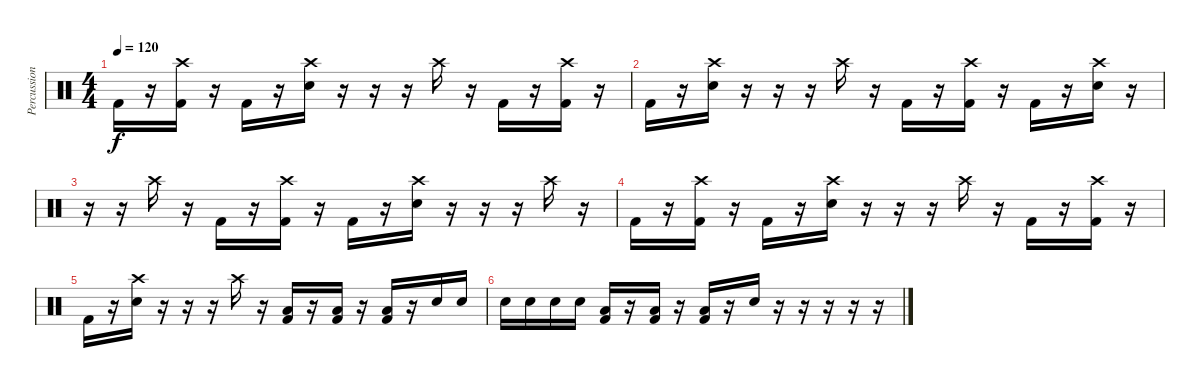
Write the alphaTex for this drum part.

\track ("Percussion" "Percussion") {instrument percussion}
\staff {score}
\articulation defaults
\ts (4 4)
\tempo 120
\clef neutral
\ks c "Kick (hit) 2".16{dy f}
r.16 ("Crash high (hit)" "Kick (hit) 2").16 r.16 "Kick (hit) 2".16 r.16 ("Crash high (hit)" "Electric Snare (hit)").16 r.16 r.16 r.16 "Crash high (hit)".16 r.16 "Kick (hit) 2".16 r.16 ("Crash high (hit)" "Kick (hit) 2").16 r.16 |
"Kick (hit) 2".16 r.16 ("Crash high (hit)" "Electric Snare (hit)").16 r.16 r.16 r.16 "Crash high (hit)".16 r.16 "Kick (hit) 2".16 r.16 ("Crash high (hit)" "Kick (hit) 2").16 r.16 "Kick (hit) 2".16 r.16 ("Crash high (hit)" "Electric Snare (hit)").16 r.16 |
r.16 r.16 "Crash high (hit)".16 r.16 "Kick (hit) 2".16 r.16 ("Crash high (hit)" "Kick (hit) 2").16 r.16 "Kick (hit) 2".16 r.16 ("Crash high (hit)" "Electric Snare (hit)").16 r.16 r.16 r.16 "Crash high (hit)".16 r.16 |
"Kick (hit) 2".16 r.16 ("Crash high (hit)" "Kick (hit) 2").16 r.16 "Kick (hit) 2".16 r.16 ("Crash high (hit)" "Electric Snare (hit)").16 r.16 r.16 r.16 "Crash high (hit)".16 r.16 "Kick (hit) 2".16 r.16 ("Crash high (hit)" "Kick (hit) 2").16 r.16 |
"Kick (hit) 2".16 r.16 ("Crash high (hit)" "Electric Snare (hit)").16 r.16 r.16 r.16 "Crash high (hit)".16 r.16 ("Low Floor Tom (hit)" "Kick (hit) 2").16 r.16 ("Low Floor Tom (hit)" "Kick (hit) 2").16 r.16 ("Low Floor Tom (hit)" "Kick (hit) 2").16 r.16 "Electric Snare (hit)".16 "Electric Snare (hit)".16 |
"Electric Snare (hit)".16 "Electric Snare (hit)".16 "Electric Snare (hit)".16 "Electric Snare (hit)".16 ("Low Floor Tom (hit)" "Kick (hit) 2").16 r.16 ("Low Floor Tom (hit)" "Kick (hit) 2").16 r.16 ("Low Floor Tom (hit)" "Kick (hit) 2").16 r.16 "Electric Snare (hit)".16 r.16 r.16 r.16 r.16 r.16
